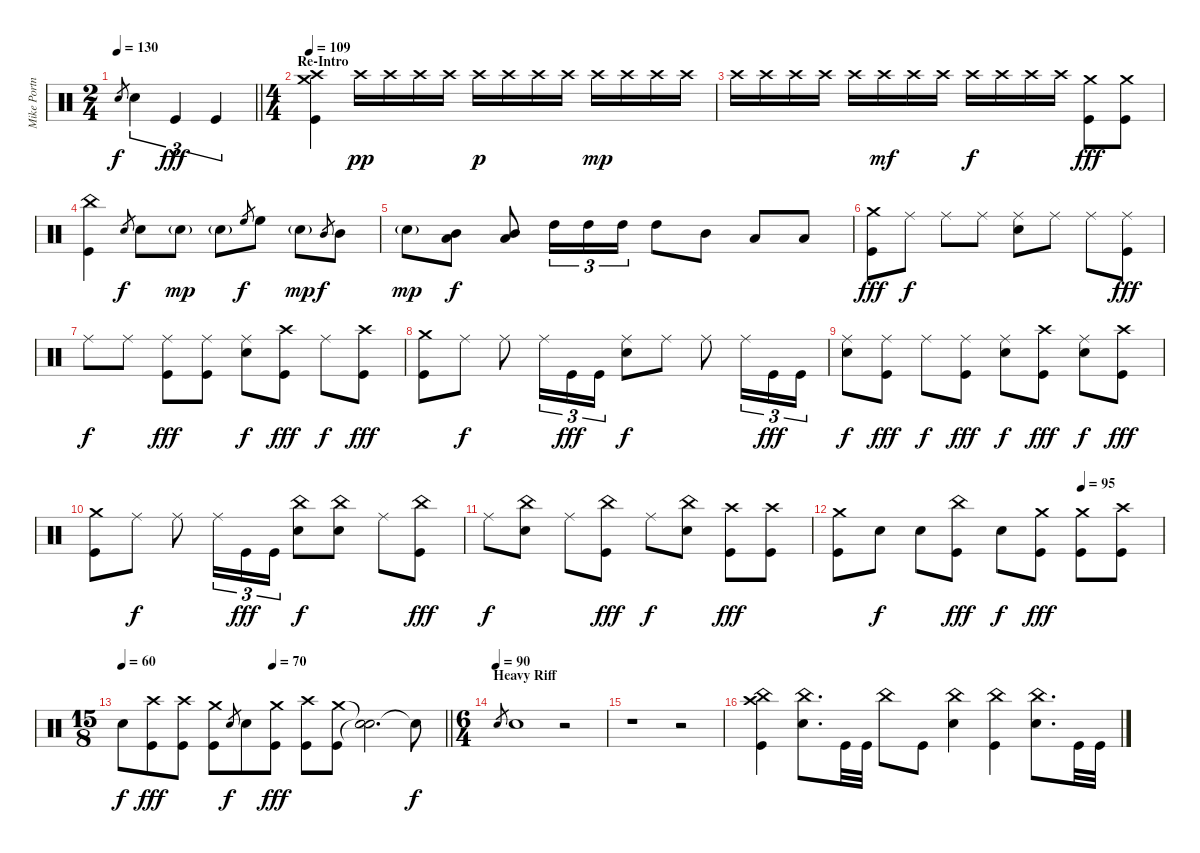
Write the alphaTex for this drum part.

\track ("Mike Portnoy" "Mike Portn") {instrument percussion}
\staff {score}
\articulation defaults
\ts (2 4)
\tempo 130
\clef neutral
\barLineRight lightlight
\ks c "Electric Snare (hit)".8{gr dy f} "Electric Snare (hit)".4{tu (3 2)} "Kick (hit)".4{tu (3 2) dy fff} "Kick (hit)".4{tu (3 2)}
|
\ts (4 4)
\section ("" "Re-Intro")
\tempo 109
("Crash high (hit)" "Crash medium (hit)" "Kick (hit)").4 "Crash high (hit)".16{dy pp} "Crash high (hit)".16 "Crash high (hit)".16 "Crash high (hit)".16 "Crash high (hit)".16{dy p} "Crash high (hit)".16 "Crash high (hit)".16 "Crash high (hit)".16 "Crash high (hit)".16{dy mp} "Crash high (hit)".16 "Crash high (hit)".16 "Crash high (hit)".16 |
"Crash high (hit)".16 "Crash high (hit)".16 "Crash high (hit)".16 "Crash high (hit)".16 "Crash high (hit)".16 "Crash high (hit)".16{dy mf} "Crash high (hit)".16 "Crash high (hit)".16 "Crash high (hit)".16{dy f} "Crash high (hit)".16 "Crash high (hit)".16 "Crash high (hit)".16 ("Crash medium (hit)" "Kick (hit)").8{dy fff} ("Crash medium (hit)" "Kick (hit)").8 |
("China (hit)" "Kick (hit)").4 "Electric Snare (hit)".8{gr dy f} "Electric Snare (hit)".8 "Electric Snare (hit)"{g}.8{dy mp} "Electric Snare (hit)"{g}.8 "High Floor Tom (hit)".8{gr dy f} "High Floor Tom (hit)".8 "Electric Snare (hit)"{g}.8{dy mp} "Mid Tom (hit)".8{gr dy f} "Mid Tom (hit)".8 |
"Electric Snare (hit)"{g}.8{dy mp} ("Mid Tom (hit)" "Low Tom (hit)").8{dy f} ("Mid Tom (hit)" "Low Tom (hit)").8 "High Tom (hit)".16{tu (3 2)} "High Tom (hit)".16{tu (3 2)} "High Tom (hit)".16{tu (3 2)} "High Tom (hit)".8 "Mid Tom (hit)".8 "Low Tom (hit)".8 "Low Tom (hit)".8 |
("Crash medium (hit)" "Kick (hit)").8{dy fff} "Ride (middle)".8{dy f} "Ride (middle)".8 "Ride (middle)".8 ("Ride (middle)" "Electric Snare (hit)").8 "Ride (middle)".8 "Ride (middle)".8 ("Ride (middle)" "Kick (hit)").8{dy fff} |
"Ride (middle)".8{dy f} "Ride (middle)".8 ("Ride (middle)" "Kick (hit)").8{dy fff} ("Ride (middle)" "Kick (hit)").8 ("Ride (middle)" "Electric Snare (hit)").8{dy f} ("Crash high (hit)" "Kick (hit)").8{dy fff} "Ride (middle)".8{dy f} ("Crash high (hit)" "Kick (hit)").8{dy fff} |
("Crash medium (hit)" "Kick (hit)").8 "Ride (middle)".8{dy f} "Ride (middle)".8 "Ride (middle)".16{tu (3 2)} "Kick (hit)".16{tu (3 2) dy fff} "Kick (hit)".16{tu (3 2)} ("Ride (middle)" "Electric Snare (hit)").8{dy f} "Ride (middle)".8 "Ride (middle)".8 "Ride (middle)".16{tu (3 2)} "Kick (hit)".16{tu (3 2) dy fff} "Kick (hit)".16{tu (3 2)} |
("Ride (middle)" "Electric Snare (hit)").8{dy f} ("Ride (middle)" "Kick (hit)").8{dy fff} "Ride (middle)".8{dy f} ("Ride (middle)" "Kick (hit)").8{dy fff} ("Ride (middle)" "Electric Snare (hit)").8{dy f} ("Crash high (hit)" "Kick (hit)").8{dy fff} ("Ride (middle)" "Electric Snare (hit)").8{dy f} ("Crash high (hit)" "Kick (hit)").8{dy fff} |
("Crash medium (hit)" "Kick (hit)").8 "Ride (middle)".8{dy f} "Ride (middle)".8 "Ride (middle)".16{tu (3 2)} "Kick (hit)".16{tu (3 2) dy fff} "Kick (hit)".16{tu (3 2)} ("China (hit)" "Electric Snare (hit)").8{dy f} ("China (hit)" "Electric Snare (hit)").8 "Ride (middle)".8 ("China (hit)" "Kick (hit)").8{dy fff} |
"Ride (middle)".8{dy f} ("China (hit)" "Electric Snare (hit)").8 "Ride (middle)".8 ("China (hit)" "Kick (hit)").8{dy fff} "Ride (middle)".8{dy f} ("China (hit)" "Electric Snare (hit)").8 ("Crash high (hit)" "Kick (hit)").8{dy fff} ("Crash high (hit)" "Kick (hit)").8 |
\tempo (95 0.75)
("Crash medium (hit)" "Kick (hit)").8 "Electric Snare (hit)".8{dy f} "Electric Snare (hit)".8 ("China (hit)" "Kick (hit)").8{dy fff} "Electric Snare (hit)".8{dy f} ("Crash medium (hit)" "Kick (hit)").8{dy fff} ("Crash medium (hit)" "Kick (hit)").8 ("Crash high (hit)" "Kick (hit)").8 |
\ts (15 8)
\tempo 60
\tempo (70 0.4666666666666667)
\barLineRight lightlight "Electric Snare (hit)".8{dy f}
("Crash high (hit)" "Kick (hit)").8{dy fff} ("Crash high (hit)" "Kick (hit)").8 ("Crash medium (hit)" "Kick (hit)").8 "Electric Snare (hit)".8{gr dy f} "Electric Snare (hit)".8 ("Crash medium (hit)" "Kick (hit)").8{dy fff} ("Crash high (hit)" "Kick (hit)").8 ("Crash medium (hit)" "Kick (hit)").8 ("Snare (hit)"{t} "Snare (hit)"{t}).2{d} "Snare (hit)"{t}.8{dy f} |
\ts (6 4)
\section ("" "Heavy Riff")
\tempo (90)
"Electric Snare (hit)".8{gr} "Electric Snare (hit)".1 r.2 |
r.1 r.2 |
("Crash high (hit)" "China (hit)" "Kick (hit)").4 ("China (hit)" "Electric Snare (hit)").8{d} "Kick (hit)".32 "Kick (hit)".32 "China (hit)".8 "Kick (hit)".8 ("China (hit)" "Electric Snare (hit)").4 ("China (hit)" "Kick (hit)").4 ("China (hit)" "Electric Snare (hit)").8{d} "Kick (hit)".32 "Kick (hit)".32
